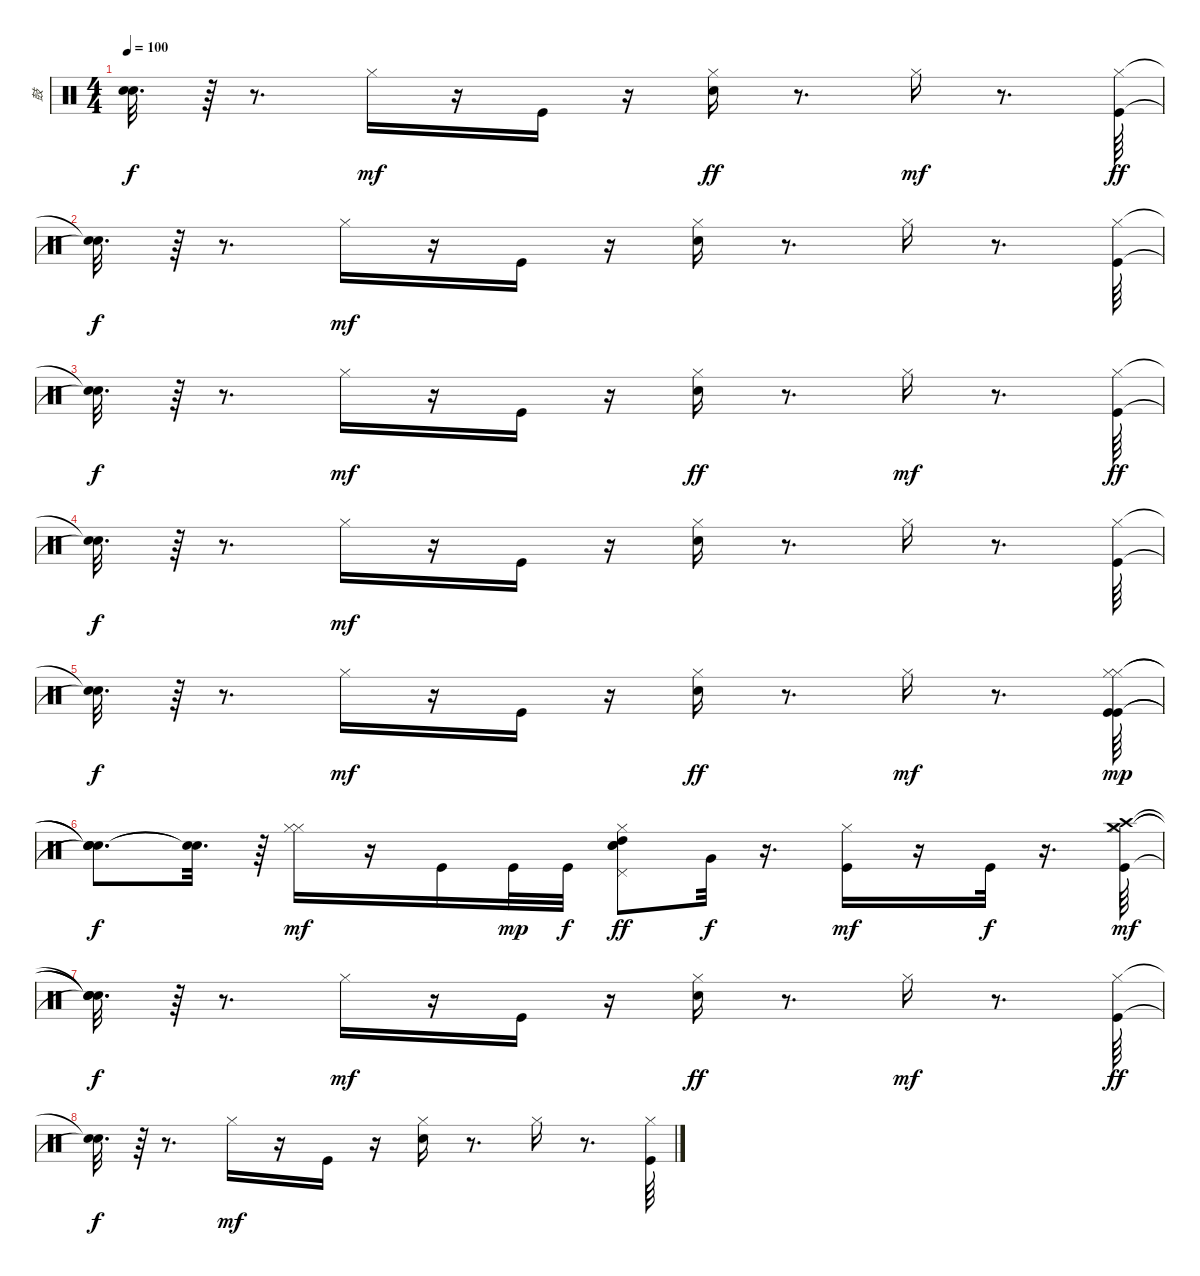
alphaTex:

\track ("鼓" "鼓") {instrument percussion}
\staff {score}
\articulation defaults
\ts (4 4)
\tempo 100
\clef neutral
\ks c
("Snare (hit)"{t} "Snare (hit)"{t}).32{d dy f} r.64 r.8{d} "Hi-Hat (closed)".16{dy mf} r.16 "Kick (hit)".16 r.16 ("Hi-Hat (closed)" "Electric Snare (hit)").16{dy ff} r.8{d} "Hi-Hat (closed)".16{dy mf} r.8{d} ("Kick (hit)" "Hi-Hat (closed)").64{dy ff} |
("Snare (hit)"{t} "Snare (hit)"{t}).32{d dy f} r.64 r.8{d} "Hi-Hat (closed)".16{dy mf} r.16 "Kick (hit)".16 r.16 ("Electric Snare (hit)" "Hi-Hat (closed)").16 r.8{d} "Hi-Hat (closed)".16 r.8{d} ("Kick (hit)" "Hi-Hat (closed)").64 |
("Snare (hit)"{t} "Snare (hit)"{t}).32{d dy f} r.64 r.8{d} "Hi-Hat (closed)".16{dy mf} r.16 "Kick (hit)".16 r.16 ("Hi-Hat (closed)" "Electric Snare (hit)").16{dy ff} r.8{d} "Hi-Hat (closed)".16{dy mf} r.8{d} ("Kick (hit)" "Hi-Hat (closed)").64{dy ff} |
("Snare (hit)"{t} "Snare (hit)"{t}).32{d dy f} r.64 r.8{d} "Hi-Hat (closed)".16{dy mf} r.16 "Kick (hit)".16 r.16 ("Electric Snare (hit)" "Hi-Hat (closed)").16 r.8{d} "Hi-Hat (closed)".16 r.8{d} ("Kick (hit)" "Hi-Hat (closed)").64 |
("Snare (hit)"{t} "Snare (hit)"{t}).32{d dy f} r.64 r.8{d} "Hi-Hat (closed)".16{dy mf} r.16 "Kick (hit)".16 r.16 ("Hi-Hat (closed)" "Electric Snare (hit)").16{dy ff} r.8{d} "Hi-Hat (closed)".16{dy mf} r.8{d} ("Kick (hit)" "Kick (hit)" "Hi-Hat (closed)" "Hi-Hat (closed)").64{dy mp} |
("Snare (hit)"{t} "Snare (hit)"{t} "Snare (hit)"{t} "Snare (hit)"{t}).8{d dy f} ("Snare (hit)"{t} "Snare (hit)"{t}).32{d} r.64 ("Hi-Hat (closed)" "Hi-Hat (closed)").16{dy mf} r.16 "Kick (hit)".16 "Kick (hit)".32{dy mp} "Kick (hit)".32{dy f} ("High Tom (hit)" "Pedal Hi-Hat (hit)" "Electric Snare (hit)" "Hi-Hat (closed)" "Electric Snare (hit)").8{dy ff} "Very Low Tom (hit)".32{dy f} r.16{d} ("Kick (hit)" "Hi-Hat (closed)").16{dy mf} r.16 "Kick (hit)".32{dy f} r.16{d} ("Crash medium (hit)" "Crash high (hit)" "Kick (hit)" "Hi-Hat (closed)").64{dy mf} |
("Snare (hit)"{t} "Snare (hit)"{t} "Snare (hit)"{t} "Snare (hit)"{t}).32{d dy f} r.64 r.8{d} "Hi-Hat (closed)".16{dy mf} r.16 "Kick (hit)".16 r.16 ("Hi-Hat (closed)" "Electric Snare (hit)").16{dy ff} r.8{d} "Hi-Hat (closed)".16{dy mf} r.8{d} ("Kick (hit)" "Hi-Hat (closed)").64{dy ff} |
("Snare (hit)"{t} "Snare (hit)"{t}).32{d dy f} r.64 r.8{d} "Hi-Hat (closed)".16{dy mf} r.16 "Kick (hit)".16 r.16 ("Electric Snare (hit)" "Hi-Hat (closed)").16 r.8{d} "Hi-Hat (closed)".16 r.8{d} ("Kick (hit)" "Hi-Hat (closed)").64
